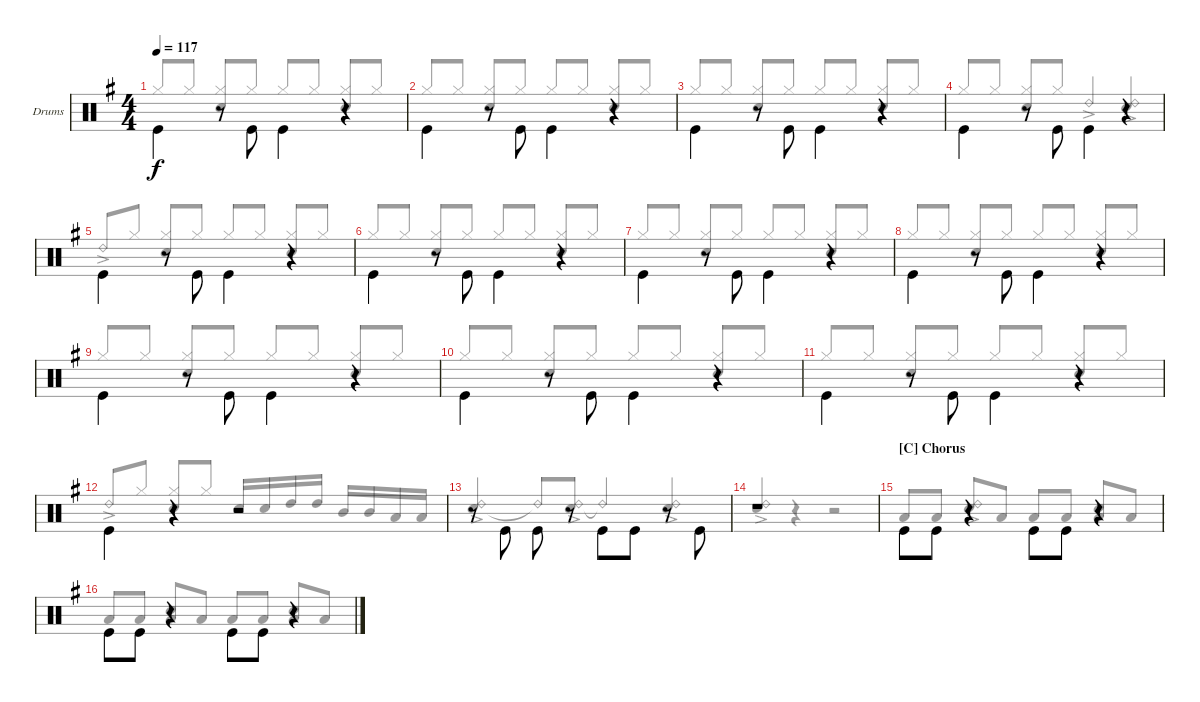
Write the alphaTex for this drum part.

\defaultSystemsLayout 4
\bracketExtendMode groupsimilarinstruments
\firstSystemTrackNameOrientation horizontal
\otherSystemsTrackNameOrientation horizontal
\track ("Drums" "Drums") {instrument percussion}
\staff {score}
\articulation defaults
\voice
\ts (4 4)
\tempo 117
\clef neutral
\scale
1.02648
\ks g "Kick (hit)".4{dy f beam invert}
r.8 "Kick (hit)".8{beam invert} "Kick (hit)".4{beam invert} r.4 |
\scale
0.973518 "Kick (hit)".4{beam invert} r.8 "Kick (hit)".8{beam invert} "Kick (hit)".4{beam invert} r.4 |
\scale
1.02648 "Kick (hit)".4{beam invert} r.8 "Kick (hit)".8{beam invert} "Kick (hit)".4{beam invert} r.4 |
\scale
0.973518 "Kick (hit)".4{beam invert} r.8 "Kick (hit)".8{beam invert} "Kick (hit)".4{beam invert} r.4 |
\scale
1.02648 "Kick (hit)".4{beam invert} r.8 "Kick (hit)".8{beam invert} "Kick (hit)".4{beam invert} r.4 |
\scale
0.973518 "Kick (hit)".4{beam invert} r.8 "Kick (hit)".8{beam invert} "Kick (hit)".4{beam invert} r.4 |
\scale
1.02648 "Kick (hit)".4{beam invert} r.8 "Kick (hit)".8{beam invert} "Kick (hit)".4{beam invert} r.4 |
\scale
0.973518 "Kick (hit)".4{beam invert} r.8 "Kick (hit)".8{beam invert} "Kick (hit)".4{beam invert} r.4 |
\scale
1.02648 "Kick (hit)".4{beam invert} r.8 "Kick (hit)".8{beam invert} "Kick (hit)".4{beam invert} r.4 |
\scale
0.973518 "Kick (hit)".4{beam invert} r.8 "Kick (hit)".8{beam invert} "Kick (hit)".4{beam invert} r.4 |
\scale
1.02648 "Kick (hit)".4{beam invert} r.8 "Kick (hit)".8{beam invert} "Kick (hit)".4{beam invert} r.4 |
\scale
0.973518 "Kick (hit)".4{beam invert} r.4 r.2 |
\scale
1.02648 r.8{beam invert} "Kick (hit)".8{beam invert} "Kick (hit)".8{beam invert} r.8{beam invert} "Kick (hit)".8{beam invert} "Kick (hit)".8 r.8{beam invert} "Kick (hit)".8{beam invert} |
\scale
0.973518 r.1 |
\section ("C" "Chorus")
\scale
1.02648 "Kick (hit)".8{beam invert} "Kick (hit)".8 r.4 "Kick (hit)".8{beam invert} "Kick (hit)".8 r.4 |
\scale
0.973518 "Kick (hit)".8{beam invert} "Kick (hit)".8 r.4 "Kick (hit)".8{beam invert} "Kick (hit)".8 r.4
\voice
\clef neutral
\ottava regular
\simile none
\scale
1.02648
\ks g "Hi-Hat (closed)".8{dy f beam invert} "Hi-Hat (closed)".8
("Hi-Hat (closed)" "Snare (hit) 2").8{beam invert} "Hi-Hat (closed)".8 "Hi-Hat (closed)".8{beam invert} "Hi-Hat (closed)".8 ("Hi-Hat (closed)" "Snare (hit) 2").8{beam invert} "Hi-Hat (closed)".8 |
\scale
0.973518 "Hi-Hat (closed)".8{beam invert} "Hi-Hat (closed)".8 ("Hi-Hat (closed)" "Snare (hit) 2").8{beam invert} "Hi-Hat (closed)".8 "Hi-Hat (closed)".8{beam invert} "Hi-Hat (closed)".8 ("Hi-Hat (closed)" "Snare (hit) 2").8{beam invert} "Hi-Hat (closed)".8 |
\scale
1.02648 "Hi-Hat (closed)".8{beam invert} "Hi-Hat (closed)".8 ("Hi-Hat (closed)" "Snare (hit) 2").8{beam invert} "Hi-Hat (closed)".8 "Hi-Hat (closed)".8{beam invert} "Hi-Hat (closed)".8 ("Hi-Hat (closed)" "Snare (hit) 2").8{beam invert} "Hi-Hat (closed)".8 |
\scale
0.973518 "Hi-Hat (closed)".8{beam invert} "Hi-Hat (closed)".8 ("Hi-Hat (closed)" "Snare (hit) 2").8{beam invert} "Hi-Hat (closed)".8 "Ride (bell) 2"{ac}.4{beam invert} ("Ride (bell) 2"{ac} "Snare (hit) 2").4{beam invert} |
\scale
1.02648 "Ride (bell) 2"{ac}.8{beam invert} "Hi-Hat (closed)".8 ("Hi-Hat (closed)" "Snare (hit) 2").8{beam invert} "Hi-Hat (closed)".8 "Hi-Hat (closed)".8{beam invert} "Hi-Hat (closed)".8 ("Hi-Hat (closed)" "Snare (hit) 2").8{beam invert} "Hi-Hat (closed)".8 |
\scale
0.973518 "Hi-Hat (closed)".8{beam invert} "Hi-Hat (closed)".8 ("Hi-Hat (closed)" "Snare (hit) 2").8{beam invert} "Hi-Hat (closed)".8 "Hi-Hat (closed)".8{beam invert} "Hi-Hat (closed)".8 ("Hi-Hat (closed)" "Snare (hit) 2").8{beam invert} "Hi-Hat (closed)".8 |
\scale
1.02648 "Hi-Hat (closed)".8{beam invert} "Hi-Hat (closed)".8 ("Hi-Hat (closed)" "Snare (hit) 2").8{beam invert} "Hi-Hat (closed)".8 "Hi-Hat (closed)".8{beam invert} "Hi-Hat (closed)".8 ("Hi-Hat (closed)" "Snare (hit) 2").8{beam invert} "Hi-Hat (closed)".8 |
\scale
0.973518 "Hi-Hat (closed)".8{beam invert} "Hi-Hat (closed)".8 ("Hi-Hat (closed)" "Snare (hit) 2").8{beam invert} "Hi-Hat (closed)".8 "Hi-Hat (closed)".8{beam invert} "Hi-Hat (closed)".8 ("Hi-Hat (closed)" "Snare (hit) 2").8{beam invert} "Hi-Hat (closed)".8 |
\scale
1.02648 "Hi-Hat (closed)".8{beam invert} "Hi-Hat (closed)".8 ("Hi-Hat (closed)" "Snare (hit) 2").8{beam invert} "Hi-Hat (closed)".8 "Hi-Hat (closed)".8{beam invert} "Hi-Hat (closed)".8 ("Hi-Hat (closed)" "Snare (hit) 2").8{beam invert} "Hi-Hat (closed)".8 |
\scale
0.973518 "Hi-Hat (closed)".8{beam invert} "Hi-Hat (closed)".8 ("Hi-Hat (closed)" "Snare (hit) 2").8{beam invert} "Hi-Hat (closed)".8 "Hi-Hat (closed)".8{beam invert} "Hi-Hat (closed)".8 ("Hi-Hat (closed)" "Snare (hit) 2").8{beam invert} "Hi-Hat (closed)".8 |
\scale
1.02648 "Hi-Hat (closed)".8{beam invert} "Hi-Hat (closed)".8 ("Hi-Hat (closed)" "Snare (hit) 2").8{beam invert} "Hi-Hat (closed)".8 "Hi-Hat (closed)".8{beam invert} "Hi-Hat (closed)".8 ("Hi-Hat (closed)" "Snare (hit) 2").8{beam invert} "Hi-Hat (closed)".8 |
\scale
0.973518 "Ride (bell) 2"{ac}.8{beam invert} "Hi-Hat (closed)".8 ("Hi-Hat (closed)" "Snare (hit) 2").8{beam invert} "Hi-Hat (closed)".8 "Snare (hit) 2".16{beam invert} "Snare (hit) 2".16 "High Tom (hit)".16 "High Tom (hit)".16 "Mid Tom (hit)".16{beam invert} "Mid Tom (hit)".16 "Low Tom (hit)".16 "Low Tom (hit)".16 |
\scale
1.02648 ("Snare (hit) 2" "Ride (bell) 2"{ac}).4{beam invert} "Ride (bell) 2"{t}.8{beam invert} ("Ride (bell) 2"{ac} "Snare (hit) 2").8 "Ride (bell) 2"{t}.4{beam invert} ("Ride (bell) 2"{ac} "Snare (hit) 2").4{beam invert} |
\scale
0.973518 ("Ride (bell) 2"{ac} "Snare (hit) 2").4{beam invert} r.4 r.2 |
\scale
1.02648 "Low Tom (hit)".8{beam invert} "Low Tom (hit)".8 ("Ride (bell) 2"{ac} "Snare (hit) 2").8{beam invert} "Low Tom (hit)".8 "Low Tom (hit)".8{beam invert} "Low Tom (hit)".8 ("Low Tom (hit)" "Snare (hit) 2").8{beam invert} "Low Tom (hit)".8 |
\scale
0.973518 "Low Tom (hit)".8{beam invert} "Low Tom (hit)".8 ("Low Tom (hit)" "Snare (hit) 2").8{beam invert} "Low Tom (hit)".8 "Low Tom (hit)".8{beam invert} "Low Tom (hit)".8 ("Low Tom (hit)" "Snare (hit) 2").8{beam invert} "Low Tom (hit)".8
